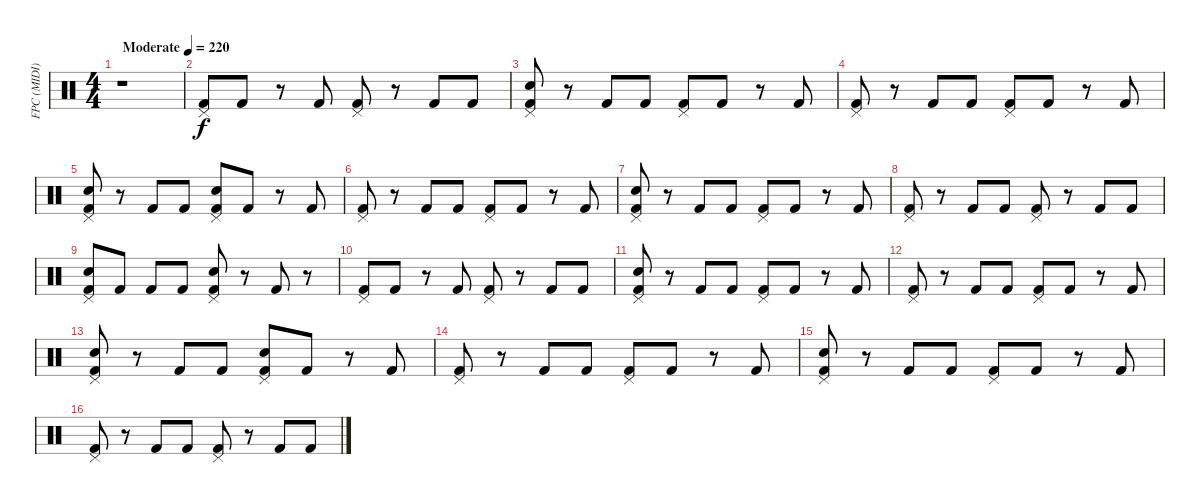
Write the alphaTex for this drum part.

\track ("FPC (MIDI)" "FPC (MIDI)") {instrument percussion}
\staff {score}
\articulation defaults
\ts (4 4)
\tempo (220 "Moderate")
\clef neutral
\ks c
r.1{dy f} |
("Kick (hit) 2" "Pedal Hi-Hat (hit)").8 "Kick (hit) 2".8 r.8 "Kick (hit) 2".8 ("Pedal Hi-Hat (hit)" "Kick (hit) 2").8 r.8 "Kick (hit) 2".8 "Kick (hit) 2".8 |
("Kick (hit) 2" "Snare (hit) 2" "Pedal Hi-Hat (hit)").8 r.8 "Kick (hit) 2".8 "Kick (hit) 2".8 ("Pedal Hi-Hat (hit)" "Kick (hit) 2").8 "Kick (hit) 2".8 r.8 "Kick (hit) 2".8 |
("Kick (hit) 2" "Pedal Hi-Hat (hit)").8 r.8 "Kick (hit) 2".8 "Kick (hit) 2".8 ("Pedal Hi-Hat (hit)" "Kick (hit) 2").8 "Kick (hit) 2".8 r.8 "Kick (hit) 2".8 |
("Kick (hit) 2" "Snare (hit) 2" "Pedal Hi-Hat (hit)").8 r.8 "Kick (hit) 2".8 "Kick (hit) 2".8 ("Kick (hit) 2" "Pedal Hi-Hat (hit)" "Snare (hit) 2").8 "Kick (hit) 2".8 r.8 "Kick (hit) 2".8 |
("Pedal Hi-Hat (hit)" "Kick (hit) 2").8 r.8 "Kick (hit) 2".8 "Kick (hit) 2".8 ("Pedal Hi-Hat (hit)" "Kick (hit) 2").8 "Kick (hit) 2".8 r.8 "Kick (hit) 2".8 |
("Kick (hit) 2" "Snare (hit) 2" "Pedal Hi-Hat (hit)").8 r.8 "Kick (hit) 2".8 "Kick (hit) 2".8 ("Kick (hit) 2" "Pedal Hi-Hat (hit)").8 "Kick (hit) 2".8 r.8 "Kick (hit) 2".8 |
("Kick (hit) 2" "Pedal Hi-Hat (hit)").8 r.8 "Kick (hit) 2".8 "Kick (hit) 2".8 ("Pedal Hi-Hat (hit)" "Kick (hit) 2").8 r.8 "Kick (hit) 2".8 "Kick (hit) 2".8 |
("Pedal Hi-Hat (hit)" "Snare (hit) 2" "Kick (hit) 2").8 "Kick (hit) 2".8 "Kick (hit) 2".8 "Kick (hit) 2".8 ("Snare (hit) 2" "Pedal Hi-Hat (hit)" "Kick (hit) 2").8 r.8 "Kick (hit) 2".8 r.8 |
("Pedal Hi-Hat (hit)" "Kick (hit) 2").8 "Kick (hit) 2".8 r.8 "Kick (hit) 2".8 ("Kick (hit) 2" "Pedal Hi-Hat (hit)").8 r.8 "Kick (hit) 2".8 "Kick (hit) 2".8 |
("Kick (hit) 2" "Snare (hit) 2" "Pedal Hi-Hat (hit)").8 r.8 "Kick (hit) 2".8 "Kick (hit) 2".8 ("Kick (hit) 2" "Pedal Hi-Hat (hit)").8 "Kick (hit) 2".8 r.8 "Kick (hit) 2".8 |
("Pedal Hi-Hat (hit)" "Kick (hit) 2").8 r.8 "Kick (hit) 2".8 "Kick (hit) 2".8 ("Kick (hit) 2" "Pedal Hi-Hat (hit)").8 "Kick (hit) 2".8 r.8 "Kick (hit) 2".8 |
("Kick (hit) 2" "Snare (hit) 2" "Pedal Hi-Hat (hit)").8 r.8 "Kick (hit) 2".8 "Kick (hit) 2".8 ("Snare (hit) 2" "Pedal Hi-Hat (hit)" "Kick (hit) 2").8 "Kick (hit) 2".8 r.8 "Kick (hit) 2".8 |
("Kick (hit) 2" "Pedal Hi-Hat (hit)").8 r.8 "Kick (hit) 2".8 "Kick (hit) 2".8 ("Kick (hit) 2" "Pedal Hi-Hat (hit)").8 "Kick (hit) 2".8 r.8 "Kick (hit) 2".8 |
("Kick (hit) 2" "Snare (hit) 2" "Pedal Hi-Hat (hit)").8 r.8 "Kick (hit) 2".8 "Kick (hit) 2".8 ("Pedal Hi-Hat (hit)" "Kick (hit) 2").8 "Kick (hit) 2".8 r.8 "Kick (hit) 2".8 |
("Pedal Hi-Hat (hit)" "Kick (hit) 2").8 r.8 "Kick (hit) 2".8 "Kick (hit) 2".8 ("Kick (hit) 2" "Pedal Hi-Hat (hit)").8 r.8 "Kick (hit) 2".8 "Kick (hit) 2".8
